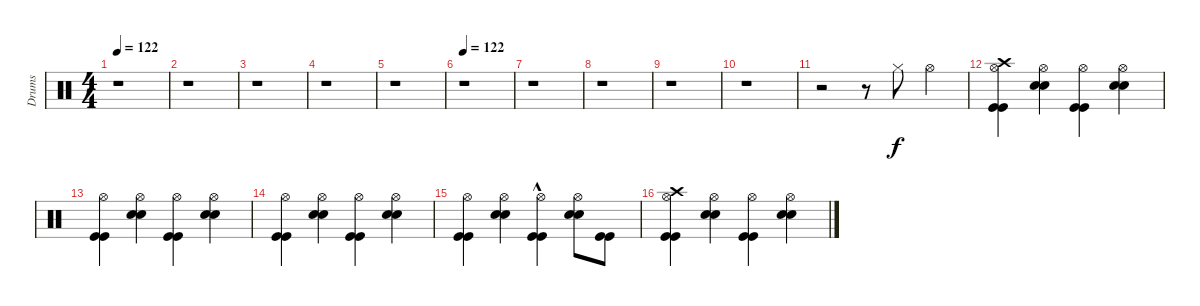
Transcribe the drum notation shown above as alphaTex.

\track ("Drums" "Drums") {instrument percussion}
\staff {score}
\articulation defaults
\ts (4 4)
\tempo 122
\tempo 84
\tempo 122
\clef neutral
\ks c
r.1{dy f} |
r.1 |
r.1 |
r.1 |
r.1 |
\tempo 122
r.1 |
r.1 |
r.1 |
r.1 |
r.1 |
r.2 r.8 "Hi-Hat (closed)".8 "Hi-Hat (open)".4 |
("Kick (hit)" "Kick (hit)" "Hi-Hat (open)" "Crash high (hit)").4 ("Snare (hit) 2" "Snare (hit) 2" "Hi-Hat (open)").4 ("Kick (hit)" "Kick (hit)" "Hi-Hat (open)").4 ("Snare (hit) 2" "Snare (hit) 2" "Hi-Hat (open)").4 |
("Kick (hit)" "Kick (hit)" "Hi-Hat (open)").4 ("Snare (hit) 2" "Snare (hit) 2" "Hi-Hat (open)").4 ("Kick (hit)" "Kick (hit)" "Hi-Hat (open)").4 ("Snare (hit) 2" "Snare (hit) 2" "Hi-Hat (open)").4 |
("Kick (hit)" "Kick (hit)" "Hi-Hat (open)").4 ("Snare (hit) 2" "Snare (hit) 2" "Hi-Hat (open)").4 ("Kick (hit)" "Kick (hit)" "Hi-Hat (open)").4 ("Snare (hit) 2" "Snare (hit) 2" "Hi-Hat (open)").4 |
("Kick (hit)" "Kick (hit)" "Hi-Hat (open)").4 ("Snare (hit) 2" "Snare (hit) 2" "Hi-Hat (open)").4 ("Kick (hit)"{hac} "Kick (hit)"{hac} "Hi-Hat (open)").4 ("Snare (hit) 2" "Snare (hit) 2" "Hi-Hat (open)").8 ("Kick (hit)" "Kick (hit)").8 |
("Kick (hit)" "Kick (hit)" "Hi-Hat (open)" "Crash high (hit)").4 ("Snare (hit) 2" "Snare (hit) 2" "Hi-Hat (open)").4 ("Kick (hit)" "Kick (hit)" "Hi-Hat (open)").4 ("Snare (hit) 2" "Snare (hit) 2" "Hi-Hat (open)").4
